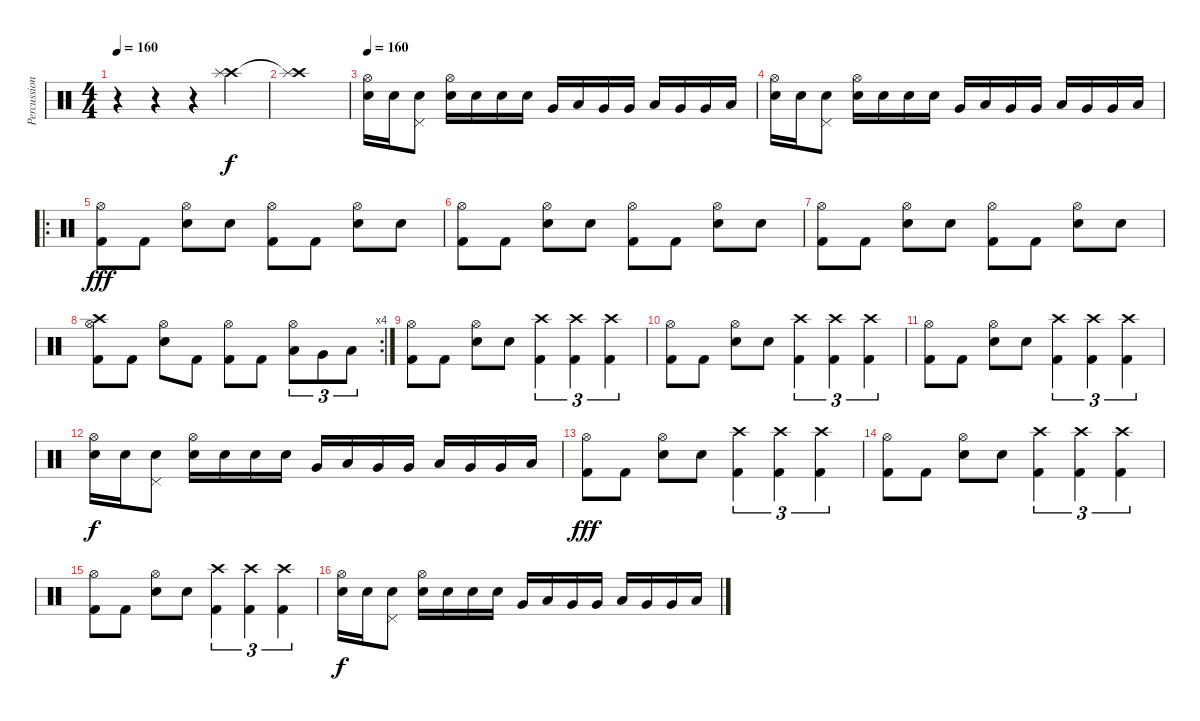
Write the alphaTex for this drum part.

\track ("Percussion" "Percussion") {instrument percussion}
\staff {score}
\articulation defaults
\ts (4 4)
\tempo 160
\clef neutral
\ks c
r.4{dy f} r.4 r.4 ("Crash high (hit)" "Splash (hit)").4 |
("Crash high (hit)"{t} "Splash (hit)").1 |
\tempo 160
("Hi-Hat (open)" "Electric Snare (hit)").16 "Electric Snare (hit)".16 ("Pedal Hi-Hat (hit)" "Electric Snare (hit)").8 ("Hi-Hat (open)" "Electric Snare (hit)").16 "Electric Snare (hit)".16 "Electric Snare (hit)".16 "Electric Snare (hit)".16 "Very Low Tom (hit)".16 "Low Tom (hit)".16 "Very Low Tom (hit)".16 "Very Low Tom (hit)".16 "Low Tom (hit)".16 "Very Low Tom (hit)".16 "Very Low Tom (hit)".16 "Low Tom (hit)".16 |
("Hi-Hat (open)" "Electric Snare (hit)").16 "Electric Snare (hit)".16 ("Pedal Hi-Hat (hit)" "Electric Snare (hit)").8 ("Hi-Hat (open)" "Electric Snare (hit)").16 "Electric Snare (hit)".16 "Electric Snare (hit)".16 "Electric Snare (hit)".16 "Very Low Tom (hit)".16 "Low Tom (hit)".16 "Very Low Tom (hit)".16 "Very Low Tom (hit)".16 "Low Tom (hit)".16 "Very Low Tom (hit)".16 "Very Low Tom (hit)".16 "Low Tom (hit)".16 |
\ro
("Kick (hit) 2" "Hi-Hat (open)").8{dy fff} "Kick (hit) 2".8 ("Snare (hit) 2" "Hi-Hat (open)").8 "Snare (hit) 2".8 ("Kick (hit) 2" "Hi-Hat (open)").8 "Kick (hit) 2".8 ("Snare (hit) 2" "Hi-Hat (open)").8 "Snare (hit) 2".8 |
("Kick (hit) 2" "Hi-Hat (open)").8 "Kick (hit) 2".8 ("Snare (hit) 2" "Hi-Hat (open)").8 "Snare (hit) 2".8 ("Kick (hit) 2" "Hi-Hat (open)").8 "Kick (hit) 2".8 ("Snare (hit) 2" "Hi-Hat (open)").8 "Snare (hit) 2".8 |
("Kick (hit) 2" "Hi-Hat (open)").8 "Kick (hit) 2".8 ("Snare (hit) 2" "Hi-Hat (open)").8 "Snare (hit) 2".8 ("Kick (hit) 2" "Hi-Hat (open)").8 "Kick (hit) 2".8 ("Snare (hit) 2" "Hi-Hat (open)").8 "Snare (hit) 2".8 |
\rc 4
("Kick (hit) 2" "Hi-Hat (open)" "Crash high (hit)").8 "Kick (hit) 2".8 ("Snare (hit) 2" "Hi-Hat (open)").8 "Kick (hit) 2".8 ("Kick (hit) 2" "Hi-Hat (open)").8 "Kick (hit) 2".8 ("Low Tom (hit)" "Hi-Hat (open)").8{tu (3 2)} "Very Low Tom (hit)".8{tu (3 2)} "Low Floor Tom (hit)".8{tu (3 2)} |
("Kick (hit) 2" "Hi-Hat (open)").8 "Kick (hit) 2".8 ("Snare (hit) 2" "Hi-Hat (open)").8 "Snare (hit) 2".8 ("Kick (hit) 2" "Crash high (hit)").4{tu (3 2)} ("Kick (hit) 2" "Crash high (hit)").4{tu (3 2)} ("Kick (hit) 2" "Crash high (hit)").4{tu (3 2)} |
("Kick (hit) 2" "Hi-Hat (open)").8 "Kick (hit) 2".8 ("Snare (hit) 2" "Hi-Hat (open)").8 "Snare (hit) 2".8 ("Kick (hit) 2" "Crash high (hit)").4{tu (3 2)} ("Kick (hit) 2" "Crash high (hit)").4{tu (3 2)} ("Kick (hit) 2" "Crash high (hit)").4{tu (3 2)} |
("Kick (hit) 2" "Hi-Hat (open)").8 "Kick (hit) 2".8 ("Snare (hit) 2" "Hi-Hat (open)").8 "Snare (hit) 2".8 ("Kick (hit) 2" "Crash high (hit)").4{tu (3 2)} ("Kick (hit) 2" "Crash high (hit)").4{tu (3 2)} ("Kick (hit) 2" "Crash high (hit)").4{tu (3 2)} |
("Hi-Hat (open)" "Electric Snare (hit)").16{dy f} "Electric Snare (hit)".16 ("Pedal Hi-Hat (hit)" "Electric Snare (hit)").8 ("Hi-Hat (open)" "Electric Snare (hit)").16 "Electric Snare (hit)".16 "Electric Snare (hit)".16 "Electric Snare (hit)".16 "Very Low Tom (hit)".16 "Low Tom (hit)".16 "Very Low Tom (hit)".16 "Very Low Tom (hit)".16 "Low Tom (hit)".16 "Very Low Tom (hit)".16 "Very Low Tom (hit)".16 "Low Tom (hit)".16 |
("Kick (hit) 2" "Hi-Hat (open)").8{dy fff} "Kick (hit) 2".8 ("Snare (hit) 2" "Hi-Hat (open)").8 "Snare (hit) 2".8 ("Kick (hit) 2" "Crash high (hit)").4{tu (3 2)} ("Kick (hit) 2" "Crash high (hit)").4{tu (3 2)} ("Kick (hit) 2" "Crash high (hit)").4{tu (3 2)} |
("Kick (hit) 2" "Hi-Hat (open)").8 "Kick (hit) 2".8 ("Snare (hit) 2" "Hi-Hat (open)").8 "Snare (hit) 2".8 ("Kick (hit) 2" "Crash high (hit)").4{tu (3 2)} ("Kick (hit) 2" "Crash high (hit)").4{tu (3 2)} ("Kick (hit) 2" "Crash high (hit)").4{tu (3 2)} |
("Kick (hit) 2" "Hi-Hat (open)").8 "Kick (hit) 2".8 ("Snare (hit) 2" "Hi-Hat (open)").8 "Snare (hit) 2".8 ("Kick (hit) 2" "Crash high (hit)").4{tu (3 2)} ("Kick (hit) 2" "Crash high (hit)").4{tu (3 2)} ("Kick (hit) 2" "Crash high (hit)").4{tu (3 2)} |
("Hi-Hat (open)" "Electric Snare (hit)").16{dy f} "Electric Snare (hit)".16 ("Pedal Hi-Hat (hit)" "Electric Snare (hit)").8 ("Hi-Hat (open)" "Electric Snare (hit)").16 "Electric Snare (hit)".16 "Electric Snare (hit)".16 "Electric Snare (hit)".16 "Very Low Tom (hit)".16 "Low Tom (hit)".16 "Very Low Tom (hit)".16 "Very Low Tom (hit)".16 "Low Tom (hit)".16 "Very Low Tom (hit)".16 "Very Low Tom (hit)".16 "Low Tom (hit)".16
